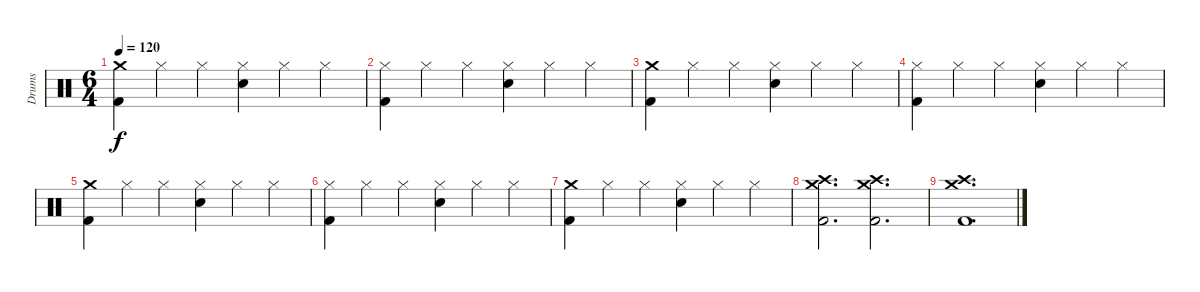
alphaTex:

\track ("Drums" "Drums") {instrument percussion}
\staff {score}
\articulation defaults
\ts (6 4)
\tempo 120
\clef neutral
\ks c
("Crash medium (hit)" "Kick (hit) 2").4{dy f} "Hi-Hat (closed)".4 "Hi-Hat (closed)".4 ("Hi-Hat (closed)" "Electric Snare (hit)").4 "Hi-Hat (closed)".4 "Hi-Hat (closed)".4 |
("Hi-Hat (closed)" "Kick (hit) 2").4 "Hi-Hat (closed)".4 "Hi-Hat (closed)".4 ("Hi-Hat (closed)" "Electric Snare (hit)").4 "Hi-Hat (closed)".4 "Hi-Hat (closed)".4 |
("Crash medium (hit)" "Kick (hit) 2").4 "Hi-Hat (closed)".4 "Hi-Hat (closed)".4 ("Hi-Hat (closed)" "Electric Snare (hit)").4 "Hi-Hat (closed)".4 "Hi-Hat (closed)".4 |
("Hi-Hat (closed)" "Kick (hit) 2").4 "Hi-Hat (closed)".4 "Hi-Hat (closed)".4 ("Hi-Hat (closed)" "Electric Snare (hit)").4 "Hi-Hat (closed)".4 "Hi-Hat (closed)".4 |
("Crash medium (hit)" "Kick (hit) 2").4 "Hi-Hat (closed)".4 "Hi-Hat (closed)".4 ("Hi-Hat (closed)" "Electric Snare (hit)").4 "Hi-Hat (closed)".4 "Hi-Hat (closed)".4 |
("Hi-Hat (closed)" "Kick (hit) 2").4 "Hi-Hat (closed)".4 "Hi-Hat (closed)".4 ("Hi-Hat (closed)" "Electric Snare (hit)").4 "Hi-Hat (closed)".4 "Hi-Hat (closed)".4 |
("Crash medium (hit)" "Kick (hit) 2").4 "Hi-Hat (closed)".4 "Hi-Hat (closed)".4 ("Hi-Hat (closed)" "Electric Snare (hit)").4 "Hi-Hat (closed)".4 "Hi-Hat (closed)".4 |
("Crash medium (hit)" "Crash high (hit)" "Kick (hit) 2").2{d} ("Crash medium (hit)" "Crash high (hit)" "Kick (hit) 2").2{d} |
("Crash medium (hit)" "Crash high (hit)" "Kick (hit) 2").1{d}
